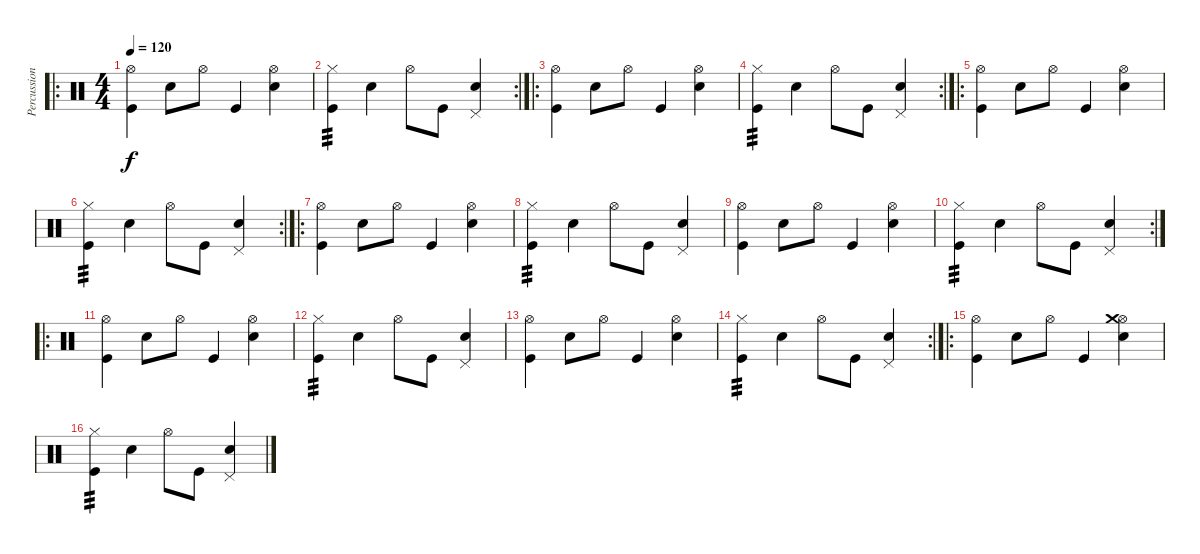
\track ("Percussion" "Percussion") {instrument percussion}
\staff {score}
\articulation defaults
\ro
\ts (4 4)
\tempo 120
\clef neutral
\ks c
("Hi-Hat (open)" "Kick (hit)").4{dy f} "Snare (hit) 2".8 "Hi-Hat (open)".8 "Kick (hit)".4 ("Hi-Hat (open)" "Snare (hit) 2").4 |
\rc 2
("Hi-Hat (closed)" "Kick (hit)").4{tp 3} "Snare (hit) 2".4 "Hi-Hat (open)".8 "Kick (hit)".8 ("Pedal Hi-Hat (hit)" "Snare (hit) 2").4 |
\ro
("Hi-Hat (open)" "Kick (hit)").4 "Snare (hit) 2".8 "Hi-Hat (open)".8 "Kick (hit)".4 ("Hi-Hat (open)" "Snare (hit) 2").4 |
\rc 2
("Hi-Hat (closed)" "Kick (hit)").4{tp 3} "Snare (hit) 2".4 "Hi-Hat (open)".8 "Kick (hit)".8 ("Pedal Hi-Hat (hit)" "Snare (hit) 2").4 |
\ro
("Hi-Hat (open)" "Kick (hit)").4 "Snare (hit) 2".8 "Hi-Hat (open)".8 "Kick (hit)".4 ("Hi-Hat (open)" "Snare (hit) 2").4 |
\rc 2
("Hi-Hat (closed)" "Kick (hit)").4{tp 3} "Snare (hit) 2".4 "Hi-Hat (open)".8 "Kick (hit)".8 ("Pedal Hi-Hat (hit)" "Snare (hit) 2").4 |
\ro
("Hi-Hat (open)" "Kick (hit)").4 "Snare (hit) 2".8 "Hi-Hat (open)".8 "Kick (hit)".4 ("Hi-Hat (open)" "Snare (hit) 2").4 |
("Hi-Hat (closed)" "Kick (hit)").4{tp 3} "Snare (hit) 2".4 "Hi-Hat (open)".8 "Kick (hit)".8 ("Pedal Hi-Hat (hit)" "Snare (hit) 2").4 |
("Hi-Hat (open)" "Kick (hit)").4 "Snare (hit) 2".8 "Hi-Hat (open)".8 "Kick (hit)".4 ("Hi-Hat (open)" "Snare (hit) 2").4 |
\rc 2
("Hi-Hat (closed)" "Kick (hit)").4{tp 3} "Snare (hit) 2".4 "Hi-Hat (open)".8 "Kick (hit)".8 ("Pedal Hi-Hat (hit)" "Snare (hit) 2").4 |
\ro
("Hi-Hat (open)" "Kick (hit)").4 "Snare (hit) 2".8 "Hi-Hat (open)".8 "Kick (hit)".4 ("Hi-Hat (open)" "Snare (hit) 2").4 |
("Hi-Hat (closed)" "Kick (hit)").4{tp 3} "Snare (hit) 2".4 "Hi-Hat (open)".8 "Kick (hit)".8 ("Pedal Hi-Hat (hit)" "Snare (hit) 2").4 |
("Hi-Hat (open)" "Kick (hit)").4 "Snare (hit) 2".8 "Hi-Hat (open)".8 "Kick (hit)".4 ("Hi-Hat (open)" "Snare (hit) 2").4 |
\rc 2
("Hi-Hat (closed)" "Kick (hit)").4{tp 3} "Snare (hit) 2".4 "Hi-Hat (open)".8 "Kick (hit)".8 ("Pedal Hi-Hat (hit)" "Snare (hit) 2").4 |
\ro
("Hi-Hat (open)" "Kick (hit)").4 "Snare (hit) 2".8 "Hi-Hat (open)".8 "Kick (hit)".4 ("Hi-Hat (open)" "Crash medium (hit)" "Snare (hit) 2").4 |
("Hi-Hat (closed)" "Kick (hit)").4{tp 3} "Snare (hit) 2".4 "Hi-Hat (open)".8 "Kick (hit)".8 ("Pedal Hi-Hat (hit)" "Snare (hit) 2").4
